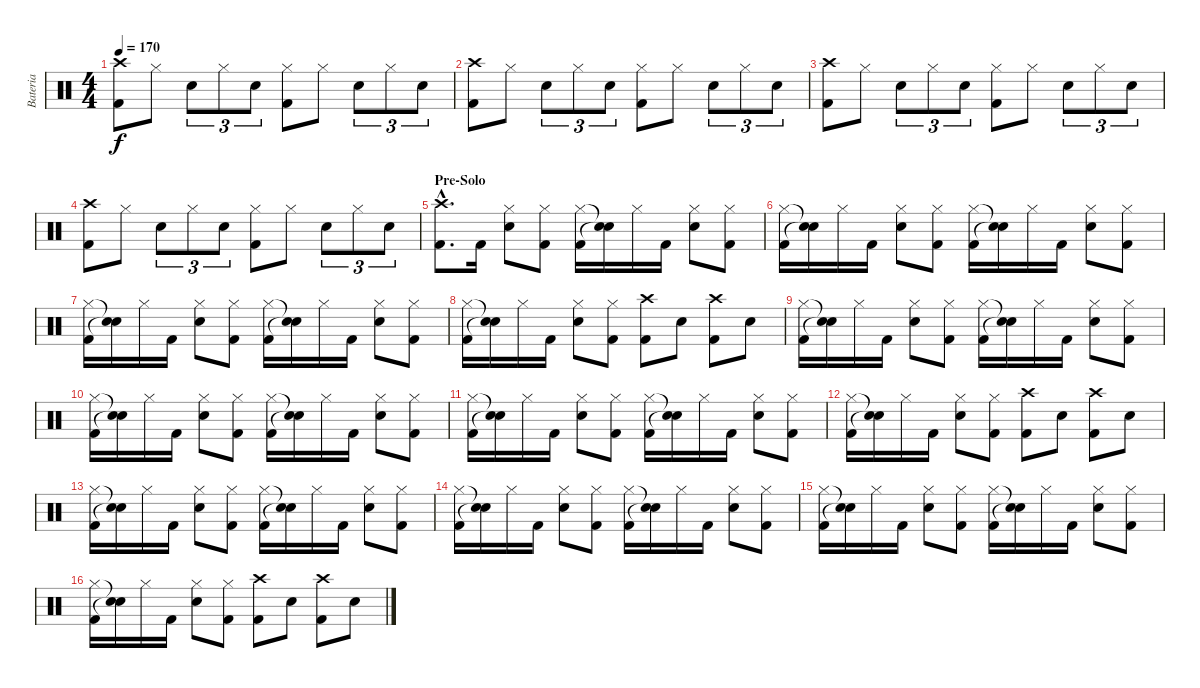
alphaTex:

\track ("Bateria" "Bateria") {instrument percussion}
\staff {score}
\articulation defaults
\ts (4 4)
\tempo 170
\clef neutral
\ks c
("Crash high (hit)" "Kick (hit) 2").8{dy f} "Hi-Hat (closed)".8 "Snare (hit) 2".8{tu (3 2)} "Hi-Hat (closed)".8{tu (3 2)} "Snare (hit) 2".8{tu (3 2)} ("Hi-Hat (closed)" "Kick (hit) 2").8 "Hi-Hat (closed)".8 "Snare (hit) 2".8{tu (3 2)} "Hi-Hat (closed)".8{tu (3 2)} "Snare (hit) 2".8{tu (3 2)} |
("Crash high (hit)" "Kick (hit) 2").8 "Hi-Hat (closed)".8 "Snare (hit) 2".8{tu (3 2)} "Hi-Hat (closed)".8{tu (3 2)} "Snare (hit) 2".8{tu (3 2)} ("Hi-Hat (closed)" "Kick (hit) 2").8 "Hi-Hat (closed)".8 "Snare (hit) 2".8{tu (3 2)} "Hi-Hat (closed)".8{tu (3 2)} "Snare (hit) 2".8{tu (3 2)} |
("Crash high (hit)" "Kick (hit) 2").8 "Hi-Hat (closed)".8 "Snare (hit) 2".8{tu (3 2)} "Hi-Hat (closed)".8{tu (3 2)} "Snare (hit) 2".8{tu (3 2)} ("Hi-Hat (closed)" "Kick (hit) 2").8 "Hi-Hat (closed)".8 "Snare (hit) 2".8{tu (3 2)} "Hi-Hat (closed)".8{tu (3 2)} "Snare (hit) 2".8{tu (3 2)} |
("Crash high (hit)" "Kick (hit) 2").8 "Hi-Hat (closed)".8 "Snare (hit) 2".8{tu (3 2)} "Hi-Hat (closed)".8{tu (3 2)} "Snare (hit) 2".8{tu (3 2)} ("Hi-Hat (closed)" "Kick (hit) 2").8 "Hi-Hat (closed)".8 "Snare (hit) 2".8{tu (3 2)} "Hi-Hat (closed)".8{tu (3 2)} "Snare (hit) 2".8{tu (3 2)} |
\section ("" "Pre-Solo")
("Crash high (hit)"{hac} "Kick (hit) 2"{hac}).8{d} "Kick (hit) 2".16 ("Hi-Hat (closed)" "Snare (hit) 2").8 ("Hi-Hat (closed)" "Kick (hit) 2").8 ("Hi-Hat (closed)" "Kick (hit) 2").16 ("Snare (hit)"{t} "Snare (hit)"{t}).16 "Hi-Hat (closed)".16 "Kick (hit) 2".16 ("Hi-Hat (closed)" "Snare (hit) 2").8 ("Hi-Hat (closed)" "Kick (hit) 2").8 |
("Hi-Hat (closed)" "Kick (hit) 2").16 ("Snare (hit)"{t} "Snare (hit)"{t}).16 "Hi-Hat (closed)".16 "Kick (hit) 2".16 ("Hi-Hat (closed)" "Snare (hit) 2").8 ("Hi-Hat (closed)" "Kick (hit) 2").8 ("Hi-Hat (closed)" "Kick (hit) 2").16 ("Snare (hit)"{t} "Snare (hit)"{t}).16 "Hi-Hat (closed)".16 "Kick (hit) 2".16 ("Hi-Hat (closed)" "Snare (hit) 2").8 ("Hi-Hat (closed)" "Kick (hit) 2").8 |
("Hi-Hat (closed)" "Kick (hit) 2").16 ("Snare (hit)"{t} "Snare (hit)"{t}).16 "Hi-Hat (closed)".16 "Kick (hit) 2".16 ("Hi-Hat (closed)" "Snare (hit) 2").8 ("Hi-Hat (closed)" "Kick (hit) 2").8 ("Hi-Hat (closed)" "Kick (hit) 2").16 ("Snare (hit)"{t} "Snare (hit)"{t}).16 "Hi-Hat (closed)".16 "Kick (hit) 2".16 ("Hi-Hat (closed)" "Snare (hit) 2").8 ("Hi-Hat (closed)" "Kick (hit) 2").8 |
("Hi-Hat (closed)" "Kick (hit) 2").16 ("Snare (hit)"{t} "Snare (hit)"{t}).16 "Hi-Hat (closed)".16 "Kick (hit) 2".16 ("Hi-Hat (closed)" "Snare (hit) 2").8 ("Hi-Hat (closed)" "Kick (hit) 2").8 ("Crash high (hit)" "Kick (hit) 2").8 "Snare (hit) 2".8 ("Crash high (hit)" "Kick (hit) 2").8 "Snare (hit) 2".8 |
("Hi-Hat (closed)" "Kick (hit) 2").16 ("Snare (hit)"{t} "Snare (hit)"{t}).16 "Hi-Hat (closed)".16 "Kick (hit) 2".16 ("Hi-Hat (closed)" "Snare (hit) 2").8 ("Hi-Hat (closed)" "Kick (hit) 2").8 ("Hi-Hat (closed)" "Kick (hit) 2").16 ("Snare (hit)"{t} "Snare (hit)"{t}).16 "Hi-Hat (closed)".16 "Kick (hit) 2".16 ("Hi-Hat (closed)" "Snare (hit) 2").8 ("Hi-Hat (closed)" "Kick (hit) 2").8 |
("Hi-Hat (closed)" "Kick (hit) 2").16 ("Snare (hit)"{t} "Snare (hit)"{t}).16 "Hi-Hat (closed)".16 "Kick (hit) 2".16 ("Hi-Hat (closed)" "Snare (hit) 2").8 ("Hi-Hat (closed)" "Kick (hit) 2").8 ("Hi-Hat (closed)" "Kick (hit) 2").16 ("Snare (hit)"{t} "Snare (hit)"{t}).16 "Hi-Hat (closed)".16 "Kick (hit) 2".16 ("Hi-Hat (closed)" "Snare (hit) 2").8 ("Hi-Hat (closed)" "Kick (hit) 2").8 |
("Hi-Hat (closed)" "Kick (hit) 2").16 ("Snare (hit)"{t} "Snare (hit)"{t}).16 "Hi-Hat (closed)".16 "Kick (hit) 2".16 ("Hi-Hat (closed)" "Snare (hit) 2").8 ("Hi-Hat (closed)" "Kick (hit) 2").8 ("Hi-Hat (closed)" "Kick (hit) 2").16 ("Snare (hit)"{t} "Snare (hit)"{t}).16 "Hi-Hat (closed)".16 "Kick (hit) 2".16 ("Hi-Hat (closed)" "Snare (hit) 2").8 ("Hi-Hat (closed)" "Kick (hit) 2").8 |
("Hi-Hat (closed)" "Kick (hit) 2").16 ("Snare (hit)"{t} "Snare (hit)"{t}).16 "Hi-Hat (closed)".16 "Kick (hit) 2".16 ("Hi-Hat (closed)" "Snare (hit) 2").8 ("Hi-Hat (closed)" "Kick (hit) 2").8 ("Crash high (hit)" "Kick (hit) 2").8 "Snare (hit) 2".8 ("Crash high (hit)" "Kick (hit) 2").8 "Snare (hit) 2".8 |
("Hi-Hat (closed)" "Kick (hit) 2").16 ("Snare (hit)"{t} "Snare (hit)"{t}).16 "Hi-Hat (closed)".16 "Kick (hit) 2".16 ("Hi-Hat (closed)" "Snare (hit) 2").8 ("Hi-Hat (closed)" "Kick (hit) 2").8 ("Hi-Hat (closed)" "Kick (hit) 2").16 ("Snare (hit)"{t} "Snare (hit)"{t}).16 "Hi-Hat (closed)".16 "Kick (hit) 2".16 ("Hi-Hat (closed)" "Snare (hit) 2").8 ("Hi-Hat (closed)" "Kick (hit) 2").8 |
("Hi-Hat (closed)" "Kick (hit) 2").16 ("Snare (hit)"{t} "Snare (hit)"{t}).16 "Hi-Hat (closed)".16 "Kick (hit) 2".16 ("Hi-Hat (closed)" "Snare (hit) 2").8 ("Hi-Hat (closed)" "Kick (hit) 2").8 ("Hi-Hat (closed)" "Kick (hit) 2").16 ("Snare (hit)"{t} "Snare (hit)"{t}).16 "Hi-Hat (closed)".16 "Kick (hit) 2".16 ("Hi-Hat (closed)" "Snare (hit) 2").8 ("Hi-Hat (closed)" "Kick (hit) 2").8 |
("Hi-Hat (closed)" "Kick (hit) 2").16 ("Snare (hit)"{t} "Snare (hit)"{t}).16 "Hi-Hat (closed)".16 "Kick (hit) 2".16 ("Hi-Hat (closed)" "Snare (hit) 2").8 ("Hi-Hat (closed)" "Kick (hit) 2").8 ("Hi-Hat (closed)" "Kick (hit) 2").16 ("Snare (hit)"{t} "Snare (hit)"{t}).16 "Hi-Hat (closed)".16 "Kick (hit) 2".16 ("Hi-Hat (closed)" "Snare (hit) 2").8 ("Hi-Hat (closed)" "Kick (hit) 2").8 |
("Hi-Hat (closed)" "Kick (hit) 2").16 ("Snare (hit)"{t} "Snare (hit)"{t}).16 "Hi-Hat (closed)".16 "Kick (hit) 2".16 ("Hi-Hat (closed)" "Snare (hit) 2").8 ("Hi-Hat (closed)" "Kick (hit) 2").8 ("Crash high (hit)" "Kick (hit) 2").8 "Snare (hit) 2".8 ("Crash high (hit)" "Kick (hit) 2").8 "Snare (hit) 2".8
